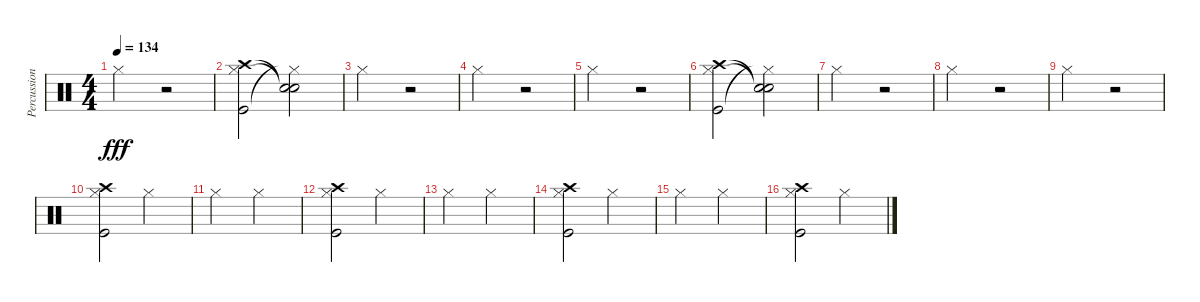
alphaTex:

\track ("Percussion (Rico)" "Percussion") {instrument percussion}
\staff {score}
\articulation defaults
\ts (4 4)
\tempo 134
\clef neutral
\ks c "Hi-Hat (closed)".2{dy fff}
r.2 |
("Kick (hit)" "Hi-Hat (closed)" "Crash high (hit)").2 ("Hi-Hat (closed)"{t} "Snare (hit)"{t} "Snare (hit)"{t}).2 |
"Hi-Hat (closed)".2 r.2 |
"Hi-Hat (closed)".2 r.2 |
"Hi-Hat (closed)".2 r.2 |
("Kick (hit)" "Hi-Hat (closed)" "Crash high (hit)").2 ("Hi-Hat (closed)"{t} "Snare (hit)"{t} "Snare (hit)"{t}).2 |
"Hi-Hat (closed)".2 r.2 |
"Hi-Hat (closed)".2 r.2 |
"Hi-Hat (closed)".2 r.2 |
("Kick (hit)" "Hi-Hat (closed)" "Crash high (hit)").2 "Hi-Hat (closed)".2 |
"Hi-Hat (closed)".2 "Hi-Hat (closed)".2 |
("Kick (hit)" "Hi-Hat (closed)" "Crash high (hit)").2 "Hi-Hat (closed)".2 |
"Hi-Hat (closed)".2 "Hi-Hat (closed)".2 |
("Kick (hit)" "Hi-Hat (closed)" "Crash high (hit)").2 "Hi-Hat (closed)".2 |
"Hi-Hat (closed)".2 "Hi-Hat (closed)".2 |
("Kick (hit)" "Hi-Hat (closed)" "Crash high (hit)").2 "Hi-Hat (closed)".2
